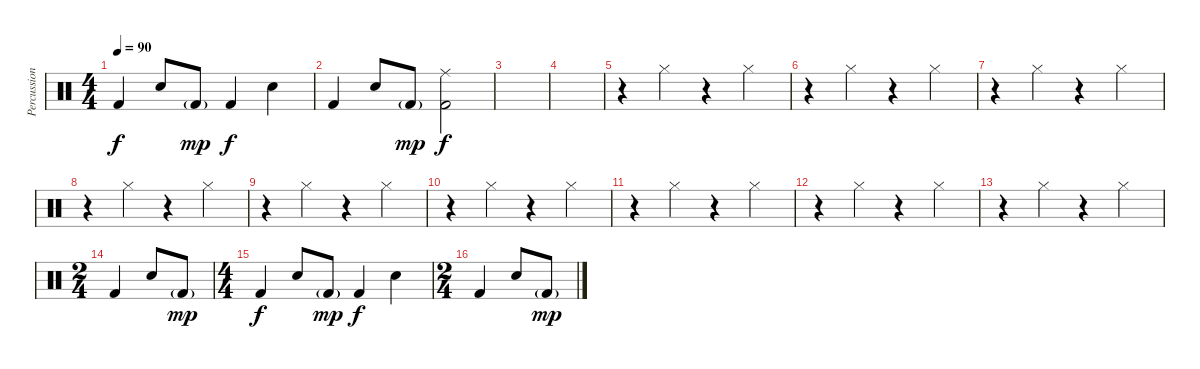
\track ("Percussion" "Percussion") {instrument percussion}
\staff {score}
\articulation defaults
\ts (4 4)
\tempo 90
\clef neutral
\ks c "Kick (hit) 2".4{dy f} "Snare (hit) 2".8 "Kick (hit) 2"{g}.8{dy mp} "Kick (hit) 2".4{dy f} "Snare (hit) 2".4
|
"Kick (hit) 2".4 "Snare (hit) 2".8 "Kick (hit) 2"{g}.8{dy mp} ("Ride (middle)" "Kick (hit) 2").2{dy f} |
|
|
r.4 "Hi-Hat (closed)".4{volume 13} r.4 "Hi-Hat (closed)".4 |
r.4 "Hi-Hat (closed)".4 r.4 "Hi-Hat (closed)".4 |
r.4 "Hi-Hat (closed)".4 r.4 "Hi-Hat (closed)".4 |
r.4 "Hi-Hat (closed)".4 r.4 "Hi-Hat (closed)".4 |
r.4 "Hi-Hat (closed)".4 r.4 "Hi-Hat (closed)".4 |
r.4 "Hi-Hat (closed)".4 r.4 "Hi-Hat (closed)".4 |
r.4 "Hi-Hat (closed)".4 r.4 "Hi-Hat (closed)".4 |
r.4 "Hi-Hat (closed)".4 r.4 "Hi-Hat (closed)".4 |
r.4 "Hi-Hat (closed)".4 r.4 "Hi-Hat (closed)".4 |
\ts (2 4)
"Kick (hit) 2".4{volume 6} "Snare (hit) 2".8 "Kick (hit) 2"{g}.8{dy mp} |
\ts (4 4)
"Kick (hit) 2".4{dy f} "Snare (hit) 2".8 "Kick (hit) 2"{g}.8{dy mp} "Kick (hit) 2".4{dy f} "Snare (hit) 2".4 |
\ts (2 4)
"Kick (hit) 2".4 "Snare (hit) 2".8 "Kick (hit) 2"{g}.8{dy mp}
